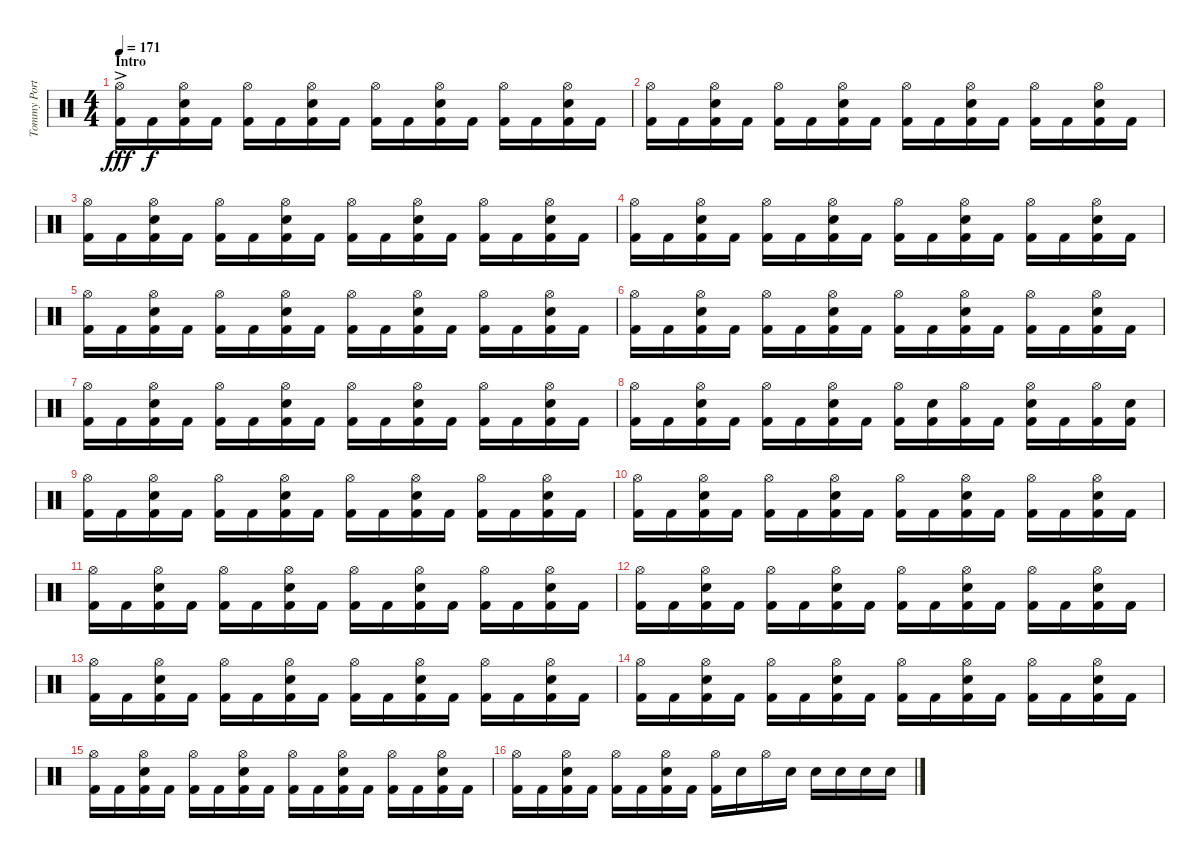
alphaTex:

\track ("Tommy Portino" "Tommy Port") {instrument percussion}
\staff {score}
\articulation defaults
\ts (4 4)
\section ("" "Intro")
\tempo 171
\clef neutral
\ks aminor
("Kick (hit) 2"{ac} "Hi-Hat (open)").16{dy fff} "Kick (hit) 2".16{dy f} ("Kick (hit) 2" "Electric Snare (hit)" "Hi-Hat (open)").16 "Kick (hit) 2".16 ("Kick (hit) 2" "Hi-Hat (open)").16 "Kick (hit) 2".16 ("Kick (hit) 2" "Electric Snare (hit)" "Hi-Hat (open)").16 "Kick (hit) 2".16 ("Kick (hit) 2" "Hi-Hat (open)").16 "Kick (hit) 2".16 ("Kick (hit) 2" "Electric Snare (hit)" "Hi-Hat (open)").16 "Kick (hit) 2".16 ("Kick (hit) 2" "Hi-Hat (open)").16 "Kick (hit) 2".16 ("Kick (hit) 2" "Electric Snare (hit)" "Hi-Hat (open)").16 "Kick (hit) 2".16 |
("Kick (hit) 2" "Hi-Hat (open)").16 "Kick (hit) 2".16 ("Kick (hit) 2" "Electric Snare (hit)" "Hi-Hat (open)").16 "Kick (hit) 2".16 ("Kick (hit) 2" "Hi-Hat (open)").16 "Kick (hit) 2".16 ("Kick (hit) 2" "Electric Snare (hit)" "Hi-Hat (open)").16 "Kick (hit) 2".16 ("Kick (hit) 2" "Hi-Hat (open)").16 "Kick (hit) 2".16 ("Kick (hit) 2" "Electric Snare (hit)" "Hi-Hat (open)").16 "Kick (hit) 2".16 ("Kick (hit) 2" "Hi-Hat (open)").16 "Kick (hit) 2".16 ("Kick (hit) 2" "Electric Snare (hit)" "Hi-Hat (open)").16 "Kick (hit) 2".16 |
("Kick (hit) 2" "Hi-Hat (open)").16 "Kick (hit) 2".16 ("Kick (hit) 2" "Electric Snare (hit)" "Hi-Hat (open)").16 "Kick (hit) 2".16 ("Kick (hit) 2" "Hi-Hat (open)").16 "Kick (hit) 2".16 ("Kick (hit) 2" "Electric Snare (hit)" "Hi-Hat (open)").16 "Kick (hit) 2".16 ("Kick (hit) 2" "Hi-Hat (open)").16 "Kick (hit) 2".16 ("Kick (hit) 2" "Electric Snare (hit)" "Hi-Hat (open)").16 "Kick (hit) 2".16 ("Kick (hit) 2" "Hi-Hat (open)").16 "Kick (hit) 2".16 ("Kick (hit) 2" "Electric Snare (hit)" "Hi-Hat (open)").16 "Kick (hit) 2".16 |
("Kick (hit) 2" "Hi-Hat (open)").16 "Kick (hit) 2".16 ("Kick (hit) 2" "Electric Snare (hit)" "Hi-Hat (open)").16 "Kick (hit) 2".16 ("Kick (hit) 2" "Hi-Hat (open)").16 "Kick (hit) 2".16 ("Kick (hit) 2" "Electric Snare (hit)" "Hi-Hat (open)").16 "Kick (hit) 2".16 ("Kick (hit) 2" "Hi-Hat (open)").16 "Kick (hit) 2".16 ("Kick (hit) 2" "Electric Snare (hit)" "Hi-Hat (open)").16 "Kick (hit) 2".16 ("Kick (hit) 2" "Hi-Hat (open)").16 "Kick (hit) 2".16 ("Kick (hit) 2" "Electric Snare (hit)" "Hi-Hat (open)").16 "Kick (hit) 2".16 |
("Kick (hit) 2" "Hi-Hat (open)").16 "Kick (hit) 2".16 ("Kick (hit) 2" "Electric Snare (hit)" "Hi-Hat (open)").16 "Kick (hit) 2".16 ("Kick (hit) 2" "Hi-Hat (open)").16 "Kick (hit) 2".16 ("Kick (hit) 2" "Electric Snare (hit)" "Hi-Hat (open)").16 "Kick (hit) 2".16 ("Kick (hit) 2" "Hi-Hat (open)").16 "Kick (hit) 2".16 ("Kick (hit) 2" "Electric Snare (hit)" "Hi-Hat (open)").16 "Kick (hit) 2".16 ("Kick (hit) 2" "Hi-Hat (open)").16 "Kick (hit) 2".16 ("Kick (hit) 2" "Electric Snare (hit)" "Hi-Hat (open)").16 "Kick (hit) 2".16 |
("Kick (hit) 2" "Hi-Hat (open)").16 "Kick (hit) 2".16 ("Kick (hit) 2" "Electric Snare (hit)" "Hi-Hat (open)").16 "Kick (hit) 2".16 ("Kick (hit) 2" "Hi-Hat (open)").16 "Kick (hit) 2".16 ("Kick (hit) 2" "Electric Snare (hit)" "Hi-Hat (open)").16 "Kick (hit) 2".16 ("Kick (hit) 2" "Hi-Hat (open)").16 "Kick (hit) 2".16 ("Kick (hit) 2" "Electric Snare (hit)" "Hi-Hat (open)").16 "Kick (hit) 2".16 ("Kick (hit) 2" "Hi-Hat (open)").16 "Kick (hit) 2".16 ("Kick (hit) 2" "Electric Snare (hit)" "Hi-Hat (open)").16 "Kick (hit) 2".16 |
("Kick (hit) 2" "Hi-Hat (open)").16 "Kick (hit) 2".16 ("Kick (hit) 2" "Electric Snare (hit)" "Hi-Hat (open)").16 "Kick (hit) 2".16 ("Kick (hit) 2" "Hi-Hat (open)").16 "Kick (hit) 2".16 ("Kick (hit) 2" "Electric Snare (hit)" "Hi-Hat (open)").16 "Kick (hit) 2".16 ("Kick (hit) 2" "Hi-Hat (open)").16 "Kick (hit) 2".16 ("Kick (hit) 2" "Electric Snare (hit)" "Hi-Hat (open)").16 "Kick (hit) 2".16 ("Kick (hit) 2" "Hi-Hat (open)").16 "Kick (hit) 2".16 ("Kick (hit) 2" "Electric Snare (hit)" "Hi-Hat (open)").16 "Kick (hit) 2".16 |
("Kick (hit) 2" "Hi-Hat (open)").16 "Kick (hit) 2".16 ("Kick (hit) 2" "Electric Snare (hit)" "Hi-Hat (open)").16 "Kick (hit) 2".16 ("Kick (hit) 2" "Hi-Hat (open)").16 "Kick (hit) 2".16 ("Kick (hit) 2" "Electric Snare (hit)" "Hi-Hat (open)").16 "Kick (hit) 2".16 ("Kick (hit) 2" "Hi-Hat (open)").16 ("Kick (hit) 2" "Electric Snare (hit)").16 ("Kick (hit) 2" "Hi-Hat (open)").16 "Kick (hit) 2".16 ("Kick (hit) 2" "Electric Snare (hit)" "Hi-Hat (open)").16 "Kick (hit) 2".16 ("Kick (hit) 2" "Hi-Hat (open)").16 ("Kick (hit) 2" "Electric Snare (hit)").16 |
("Kick (hit) 2" "Hi-Hat (open)").16 "Kick (hit) 2".16 ("Kick (hit) 2" "Electric Snare (hit)" "Hi-Hat (open)").16 "Kick (hit) 2".16 ("Kick (hit) 2" "Hi-Hat (open)").16 "Kick (hit) 2".16 ("Kick (hit) 2" "Electric Snare (hit)" "Hi-Hat (open)").16 "Kick (hit) 2".16 ("Kick (hit) 2" "Hi-Hat (open)").16 "Kick (hit) 2".16 ("Kick (hit) 2" "Electric Snare (hit)" "Hi-Hat (open)").16 "Kick (hit) 2".16 ("Kick (hit) 2" "Hi-Hat (open)").16 "Kick (hit) 2".16 ("Kick (hit) 2" "Electric Snare (hit)" "Hi-Hat (open)").16 "Kick (hit) 2".16 |
("Kick (hit) 2" "Hi-Hat (open)").16 "Kick (hit) 2".16 ("Kick (hit) 2" "Electric Snare (hit)" "Hi-Hat (open)").16 "Kick (hit) 2".16 ("Kick (hit) 2" "Hi-Hat (open)").16 "Kick (hit) 2".16 ("Kick (hit) 2" "Electric Snare (hit)" "Hi-Hat (open)").16 "Kick (hit) 2".16 ("Kick (hit) 2" "Hi-Hat (open)").16 "Kick (hit) 2".16 ("Kick (hit) 2" "Electric Snare (hit)" "Hi-Hat (open)").16 "Kick (hit) 2".16 ("Kick (hit) 2" "Hi-Hat (open)").16 "Kick (hit) 2".16 ("Kick (hit) 2" "Electric Snare (hit)" "Hi-Hat (open)").16 "Kick (hit) 2".16 |
("Kick (hit) 2" "Hi-Hat (open)").16 "Kick (hit) 2".16 ("Kick (hit) 2" "Electric Snare (hit)" "Hi-Hat (open)").16 "Kick (hit) 2".16 ("Kick (hit) 2" "Hi-Hat (open)").16 "Kick (hit) 2".16 ("Kick (hit) 2" "Electric Snare (hit)" "Hi-Hat (open)").16 "Kick (hit) 2".16 ("Kick (hit) 2" "Hi-Hat (open)").16 "Kick (hit) 2".16 ("Kick (hit) 2" "Electric Snare (hit)" "Hi-Hat (open)").16 "Kick (hit) 2".16 ("Kick (hit) 2" "Hi-Hat (open)").16 "Kick (hit) 2".16 ("Kick (hit) 2" "Electric Snare (hit)" "Hi-Hat (open)").16 "Kick (hit) 2".16 |
("Kick (hit) 2" "Hi-Hat (open)").16 "Kick (hit) 2".16 ("Kick (hit) 2" "Electric Snare (hit)" "Hi-Hat (open)").16 "Kick (hit) 2".16 ("Kick (hit) 2" "Hi-Hat (open)").16 "Kick (hit) 2".16 ("Kick (hit) 2" "Electric Snare (hit)" "Hi-Hat (open)").16 "Kick (hit) 2".16 ("Kick (hit) 2" "Hi-Hat (open)").16 "Kick (hit) 2".16 ("Kick (hit) 2" "Electric Snare (hit)" "Hi-Hat (open)").16 "Kick (hit) 2".16 ("Kick (hit) 2" "Hi-Hat (open)").16 "Kick (hit) 2".16 ("Kick (hit) 2" "Electric Snare (hit)" "Hi-Hat (open)").16 "Kick (hit) 2".16 |
("Kick (hit) 2" "Hi-Hat (open)").16 "Kick (hit) 2".16 ("Kick (hit) 2" "Electric Snare (hit)" "Hi-Hat (open)").16 "Kick (hit) 2".16 ("Kick (hit) 2" "Hi-Hat (open)").16 "Kick (hit) 2".16 ("Kick (hit) 2" "Electric Snare (hit)" "Hi-Hat (open)").16 "Kick (hit) 2".16 ("Kick (hit) 2" "Hi-Hat (open)").16 "Kick (hit) 2".16 ("Kick (hit) 2" "Electric Snare (hit)" "Hi-Hat (open)").16 "Kick (hit) 2".16 ("Kick (hit) 2" "Hi-Hat (open)").16 "Kick (hit) 2".16 ("Kick (hit) 2" "Electric Snare (hit)" "Hi-Hat (open)").16 "Kick (hit) 2".16 |
("Kick (hit) 2" "Hi-Hat (open)").16 "Kick (hit) 2".16 ("Kick (hit) 2" "Electric Snare (hit)" "Hi-Hat (open)").16 "Kick (hit) 2".16 ("Kick (hit) 2" "Hi-Hat (open)").16 "Kick (hit) 2".16 ("Kick (hit) 2" "Electric Snare (hit)" "Hi-Hat (open)").16 "Kick (hit) 2".16 ("Kick (hit) 2" "Hi-Hat (open)").16 "Kick (hit) 2".16 ("Kick (hit) 2" "Electric Snare (hit)" "Hi-Hat (open)").16 "Kick (hit) 2".16 ("Kick (hit) 2" "Hi-Hat (open)").16 "Kick (hit) 2".16 ("Kick (hit) 2" "Electric Snare (hit)" "Hi-Hat (open)").16 "Kick (hit) 2".16 |
("Kick (hit) 2" "Hi-Hat (open)").16 "Kick (hit) 2".16 ("Kick (hit) 2" "Electric Snare (hit)" "Hi-Hat (open)").16 "Kick (hit) 2".16 ("Kick (hit) 2" "Hi-Hat (open)").16 "Kick (hit) 2".16 ("Kick (hit) 2" "Electric Snare (hit)" "Hi-Hat (open)").16 "Kick (hit) 2".16 ("Kick (hit) 2" "Hi-Hat (open)").16 "Kick (hit) 2".16 ("Kick (hit) 2" "Electric Snare (hit)" "Hi-Hat (open)").16 "Kick (hit) 2".16 ("Kick (hit) 2" "Hi-Hat (open)").16 "Kick (hit) 2".16 ("Kick (hit) 2" "Electric Snare (hit)" "Hi-Hat (open)").16 "Kick (hit) 2".16 |
("Kick (hit) 2" "Hi-Hat (open)").16 "Kick (hit) 2".16 ("Kick (hit) 2" "Electric Snare (hit)" "Hi-Hat (open)").16 "Kick (hit) 2".16 ("Kick (hit) 2" "Hi-Hat (open)").16 "Kick (hit) 2".16 ("Kick (hit) 2" "Electric Snare (hit)" "Hi-Hat (open)").16 "Kick (hit) 2".16 ("Kick (hit) 2" "Hi-Hat (open)").16 "Electric Snare (hit)".16 "Hi-Hat (open)".16 "Electric Snare (hit)".16 "Electric Snare (hit)".16 "Electric Snare (hit)".16 "Electric Snare (hit)".16 "Electric Snare (hit)".16
